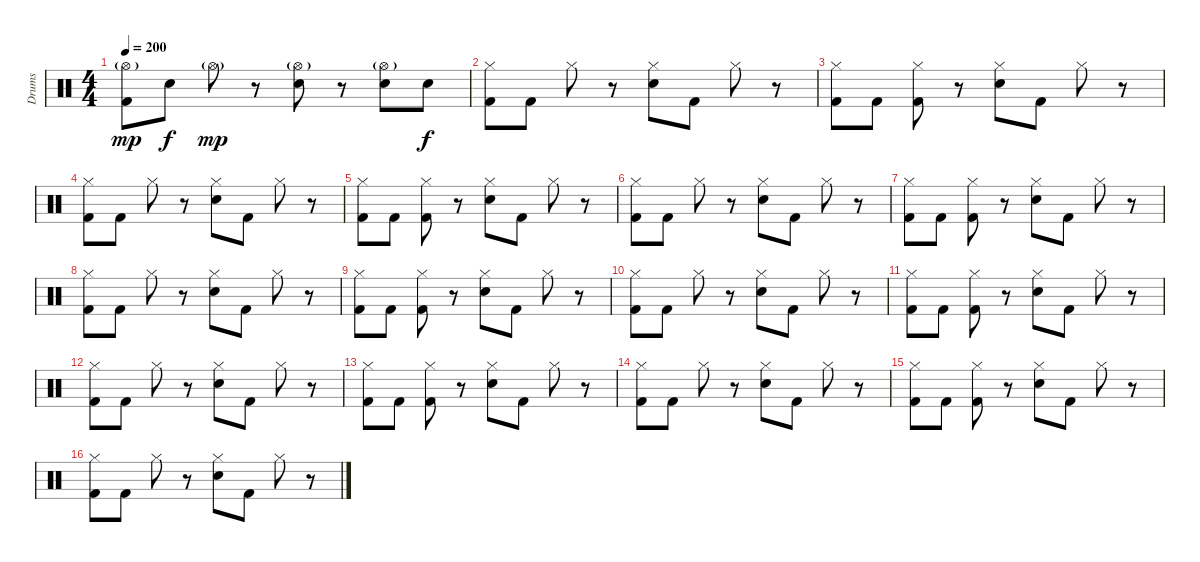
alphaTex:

\track ("Drums" "Drums") {instrument percussion}
\staff {score}
\articulation defaults
\ts (4 4)
\tempo 200
\clef neutral
\ks c
("Hi-Hat (open)"{g} "Kick (hit) 2").8{dy mp} "Electric Snare (hit)".8{dy f} "Hi-Hat (open)"{g}.8{dy mp} r.8 ("Hi-Hat (open)"{g} "Electric Snare (hit)").8 r.8 ("Hi-Hat (open)"{g} "Electric Snare (hit)").8 "Electric Snare (hit)".8{dy f} |
("Hi-Hat (closed)" "Kick (hit) 2").8 "Kick (hit) 2".8 "Hi-Hat (closed)".8 r.8 ("Hi-Hat (closed)" "Electric Snare (hit)").8 "Kick (hit) 2".8 "Hi-Hat (closed)".8 r.8 |
("Hi-Hat (closed)" "Kick (hit) 2").8 "Kick (hit) 2".8 ("Hi-Hat (closed)" "Kick (hit) 2").8 r.8 ("Hi-Hat (closed)" "Electric Snare (hit)").8 "Kick (hit) 2".8 "Hi-Hat (closed)".8 r.8 |
("Hi-Hat (closed)" "Kick (hit) 2").8 "Kick (hit) 2".8 "Hi-Hat (closed)".8 r.8 ("Hi-Hat (closed)" "Electric Snare (hit)").8 "Kick (hit) 2".8 "Hi-Hat (closed)".8 r.8 |
("Hi-Hat (closed)" "Kick (hit) 2").8 "Kick (hit) 2".8 ("Hi-Hat (closed)" "Kick (hit) 2").8 r.8 ("Hi-Hat (closed)" "Electric Snare (hit)").8 "Kick (hit) 2".8 "Hi-Hat (closed)".8 r.8 |
("Hi-Hat (closed)" "Kick (hit) 2").8 "Kick (hit) 2".8 "Hi-Hat (closed)".8 r.8 ("Hi-Hat (closed)" "Electric Snare (hit)").8 "Kick (hit) 2".8 "Hi-Hat (closed)".8 r.8 |
("Hi-Hat (closed)" "Kick (hit) 2").8 "Kick (hit) 2".8 ("Hi-Hat (closed)" "Kick (hit) 2").8 r.8 ("Hi-Hat (closed)" "Electric Snare (hit)").8 "Kick (hit) 2".8 "Hi-Hat (closed)".8 r.8 |
("Hi-Hat (closed)" "Kick (hit) 2").8 "Kick (hit) 2".8 "Hi-Hat (closed)".8 r.8 ("Hi-Hat (closed)" "Electric Snare (hit)").8 "Kick (hit) 2".8 "Hi-Hat (closed)".8 r.8 |
("Hi-Hat (closed)" "Kick (hit) 2").8 "Kick (hit) 2".8 ("Hi-Hat (closed)" "Kick (hit) 2").8 r.8 ("Hi-Hat (closed)" "Electric Snare (hit)").8 "Kick (hit) 2".8 "Hi-Hat (closed)".8 r.8 |
("Hi-Hat (closed)" "Kick (hit) 2").8 "Kick (hit) 2".8 "Hi-Hat (closed)".8 r.8 ("Hi-Hat (closed)" "Electric Snare (hit)").8 "Kick (hit) 2".8 "Hi-Hat (closed)".8 r.8 |
("Hi-Hat (closed)" "Kick (hit) 2").8 "Kick (hit) 2".8 ("Hi-Hat (closed)" "Kick (hit) 2").8 r.8 ("Hi-Hat (closed)" "Electric Snare (hit)").8 "Kick (hit) 2".8 "Hi-Hat (closed)".8 r.8 |
("Hi-Hat (closed)" "Kick (hit) 2").8 "Kick (hit) 2".8 "Hi-Hat (closed)".8 r.8 ("Hi-Hat (closed)" "Electric Snare (hit)").8 "Kick (hit) 2".8 "Hi-Hat (closed)".8 r.8 |
("Hi-Hat (closed)" "Kick (hit) 2").8 "Kick (hit) 2".8 ("Hi-Hat (closed)" "Kick (hit) 2").8 r.8 ("Hi-Hat (closed)" "Electric Snare (hit)").8 "Kick (hit) 2".8 "Hi-Hat (closed)".8 r.8 |
("Hi-Hat (closed)" "Kick (hit) 2").8 "Kick (hit) 2".8 "Hi-Hat (closed)".8 r.8 ("Hi-Hat (closed)" "Electric Snare (hit)").8 "Kick (hit) 2".8 "Hi-Hat (closed)".8 r.8 |
("Hi-Hat (closed)" "Kick (hit) 2").8 "Kick (hit) 2".8 ("Hi-Hat (closed)" "Kick (hit) 2").8 r.8 ("Hi-Hat (closed)" "Electric Snare (hit)").8 "Kick (hit) 2".8 "Hi-Hat (closed)".8 r.8 |
("Hi-Hat (closed)" "Kick (hit) 2").8 "Kick (hit) 2".8 "Hi-Hat (closed)".8 r.8 ("Hi-Hat (closed)" "Electric Snare (hit)").8 "Kick (hit) 2".8 "Hi-Hat (closed)".8 r.8
